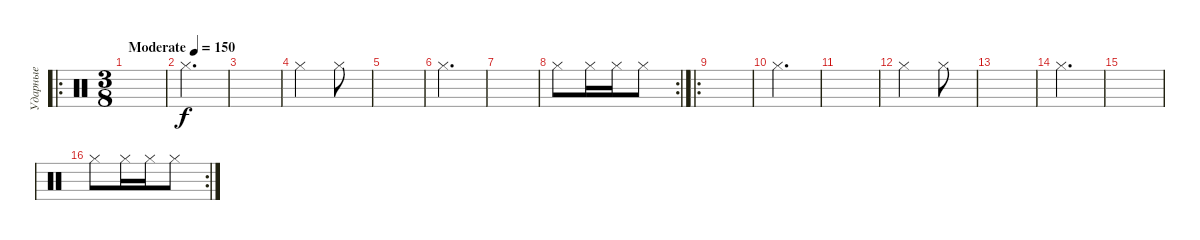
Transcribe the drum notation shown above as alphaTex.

\track ("Ударные" "Ударные") {instrument percussion}
\staff {score}
\articulation defaults
\ro
\ts (3 8)
\tempo (150 "Moderate")
\clef neutral
\ks c
|
"Hi-Hat (closed)".4{d} |
|
"Hi-Hat (closed)".4 "Hi-Hat (closed)".8 |
|
"Hi-Hat (closed)".4{d} |
|
\rc 2 "Hi-Hat (closed)".8 "Hi-Hat (closed)".16 "Hi-Hat (closed)".16 "Hi-Hat (closed)".8
|
\ro
|
"Hi-Hat (closed)".4{d} |
|
"Hi-Hat (closed)".4 "Hi-Hat (closed)".8 |
|
"Hi-Hat (closed)".4{d} |
|
\rc 2 "Hi-Hat (closed)".8 "Hi-Hat (closed)".16 "Hi-Hat (closed)".16 "Hi-Hat (closed)".8
